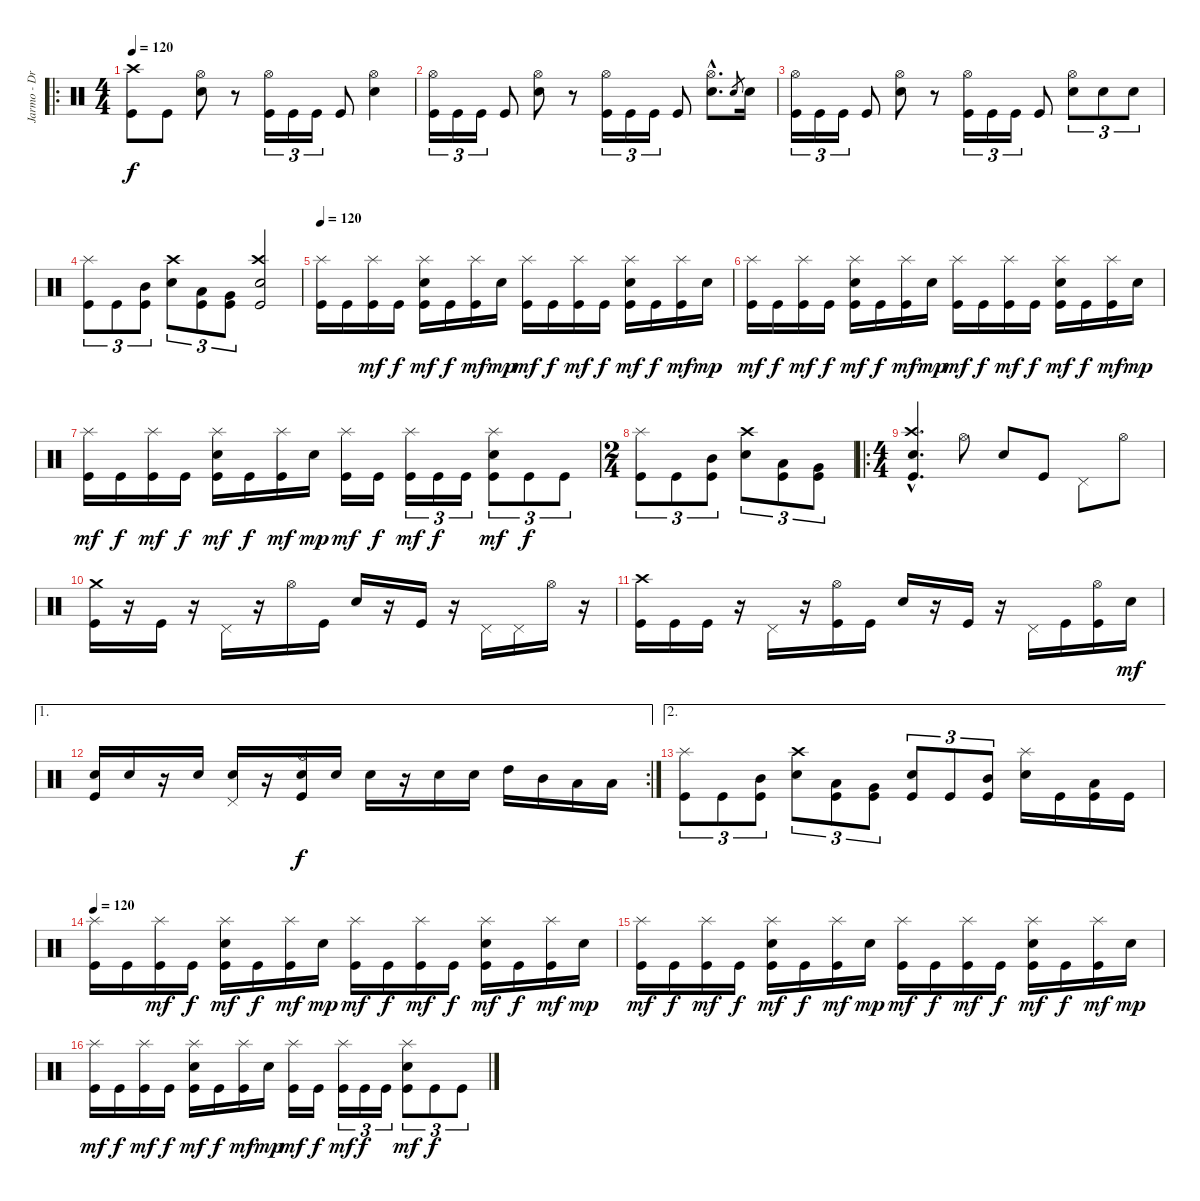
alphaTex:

\track ("Jarmo - Drums" "Jarmo - Dr") {instrument percussion}
\staff {score}
\articulation defaults
\ro
\ts (4 4)
\tempo 120
\clef neutral
\ks c
("Kick (hit)" "Crash high (hit)").8{dy f} "Kick (hit)".8 ("Electric Snare (hit)" "Hi-Hat (open)").8 r.8 ("Kick (hit)" "Hi-Hat (open)").16{tu (3 2)} "Kick (hit)".16{tu (3 2)} "Kick (hit)".16{tu (3 2)} "Kick (hit)".8 ("Electric Snare (hit)" "Hi-Hat (open)").4 |
("Kick (hit)" "Hi-Hat (open)").16{tu (3 2)} "Kick (hit)".16{tu (3 2)} "Kick (hit)".16{tu (3 2)} "Kick (hit)".8 ("Electric Snare (hit)" "Hi-Hat (open)").8 r.8 ("Kick (hit)" "Hi-Hat (open)").16{tu (3 2)} "Kick (hit)".16{tu (3 2)} "Kick (hit)".16{tu (3 2)} "Kick (hit)".8 ("Electric Snare (hit)"{hac} "Hi-Hat (open)"{hac}).8{d} "Snare (hit) 2".8{gr} "Electric Snare (hit)".16 |
("Kick (hit)" "Hi-Hat (open)").16{tu (3 2)} "Kick (hit)".16{tu (3 2)} "Kick (hit)".16{tu (3 2)} "Kick (hit)".8 ("Electric Snare (hit)" "Hi-Hat (open)").8 r.8 ("Kick (hit)" "Hi-Hat (open)").16{tu (3 2)} "Kick (hit)".16{tu (3 2)} "Kick (hit)".16{tu (3 2)} "Kick (hit)".8 ("Electric Snare (hit)" "Hi-Hat (open)").8{tu (3 2)} "Electric Snare (hit)".8{tu (3 2)} "Electric Snare (hit)".8{tu (3 2)} |
("Kick (hit)" "Splash (hit)").8{tu (3 2)} "Kick (hit)".8{tu (3 2)} ("Kick (hit)" "Mid Tom (hit)").8{tu (3 2)} ("Electric Snare (hit)" "Crash high (hit)").8{tu (3 2)} ("Kick (hit)" "Low Tom (hit)").8{tu (3 2)} ("Kick (hit)" "Very Low Tom (hit)").8{tu (3 2)} ("Kick (hit)" "Electric Snare (hit)" "Crash high (hit)").2 |
\tempo 120
("Kick (hit)" "Splash (hit)").16 "Kick (hit)".16 ("Kick (hit)" "Splash (hit)").16{dy mf} "Kick (hit)".16{dy f} ("Kick (hit)" "Electric Snare (hit)" "Splash (hit)").16{dy mf} "Kick (hit)".16{dy f} ("Kick (hit)" "Splash (hit)").16{dy mf} "Electric Snare (hit)".16{dy mp} ("Kick (hit)" "Splash (hit)").16{dy mf} "Kick (hit)".16{dy f} ("Kick (hit)" "Splash (hit)").16{dy mf} "Kick (hit)".16{dy f} ("Kick (hit)" "Electric Snare (hit)" "Splash (hit)").16{dy mf} "Kick (hit)".16{dy f} ("Kick (hit)" "Splash (hit)").16{dy mf} "Electric Snare (hit)".16{dy mp} |
("Kick (hit)" "Splash (hit)").16{dy mf} "Kick (hit)".16{dy f} ("Kick (hit)" "Splash (hit)").16{dy mf} "Kick (hit)".16{dy f} ("Kick (hit)" "Electric Snare (hit)" "Splash (hit)").16{dy mf} "Kick (hit)".16{dy f} ("Kick (hit)" "Splash (hit)").16{dy mf} "Electric Snare (hit)".16{dy mp} ("Kick (hit)" "Splash (hit)").16{dy mf} "Kick (hit)".16{dy f} ("Kick (hit)" "Splash (hit)").16{dy mf} "Kick (hit)".16{dy f} ("Kick (hit)" "Electric Snare (hit)" "Splash (hit)").16{dy mf} "Kick (hit)".16{dy f} ("Kick (hit)" "Splash (hit)").16{dy mf} "Electric Snare (hit)".16{dy mp} |
("Kick (hit)" "Splash (hit)").16{dy mf} "Kick (hit)".16{dy f} ("Kick (hit)" "Splash (hit)").16{dy mf} "Kick (hit)".16{dy f} ("Kick (hit)" "Electric Snare (hit)" "Splash (hit)").16{dy mf} "Kick (hit)".16{dy f} ("Kick (hit)" "Splash (hit)").16{dy mf} "Electric Snare (hit)".16{dy mp} ("Kick (hit)" "Splash (hit)").16{dy mf} "Kick (hit)".16{dy f} ("Kick (hit)" "Splash (hit)").16{tu (3 2) dy mf} "Kick (hit)".16{tu (3 2) dy f} "Kick (hit)".16{tu (3 2)} ("Kick (hit)" "Electric Snare (hit)" "Splash (hit)").8{tu (3 2) dy mf} "Kick (hit)".8{tu (3 2) dy f} "Kick (hit)".8{tu (3 2)} |
\ts (2 4)
("Kick (hit)" "Splash (hit)").8{tu (3 2)} "Kick (hit)".8{tu (3 2)} ("Kick (hit)" "Mid Tom (hit)").8{tu (3 2)} ("Electric Snare (hit)" "Crash high (hit)").8{tu (3 2)} ("Kick (hit)" "Low Tom (hit)").8{tu (3 2)} ("Kick (hit)" "Very Low Tom (hit)").8{tu (3 2)} |
\ro
\ts (4 4)
("Kick (hit)"{hac} "Electric Snare (hit)"{hac} "Crash high (hit)"{hac}).4{d} "Hi-Hat (open)".8 "Electric Snare (hit)".8 "Kick (hit)".8 "Pedal Hi-Hat (hit)".8 "Hi-Hat (open)".8 |
("Kick (hit)" "Crash medium (hit)").16 r.16 "Kick (hit)".16 r.16 "Pedal Hi-Hat (hit)".16 r.16 "Hi-Hat (open)".16 "Kick (hit)".16 "Electric Snare (hit)".16 r.16 "Kick (hit)".16 r.16 "Pedal Hi-Hat (hit)".16 "Pedal Hi-Hat (hit)".16 "Hi-Hat (open)".16 r.16 |
("Kick (hit)" "Crash high (hit)").16 "Kick (hit)".16 "Kick (hit)".16 r.16 "Pedal Hi-Hat (hit)".16 r.16 ("Kick (hit)" "Hi-Hat (open)").16 "Kick (hit)".16 "Electric Snare (hit)".16 r.16 "Kick (hit)".16 r.16 "Pedal Hi-Hat (hit)".16 "Kick (hit)".16 ("Kick (hit)" "Hi-Hat (open)").16 "Snare (hit) 2".16{dy mf} |
\ae 1
\rc 2
("Kick (hit)" "Snare (hit) 2").16 "Snare (hit) 2".16 r.16 "Snare (hit) 2".16 ("Snare (hit) 2" "Pedal Hi-Hat (hit)").16 r.16 ("Kick (hit)" "Snare (hit) 2" "Hi-Hat (open)").16{dy f} "Snare (hit) 2".16 "Electric Snare (hit)".16 r.16 "Electric Snare (hit)".16 "Electric Snare (hit)".16 "High Tom (hit)".16 "Mid Tom (hit)".16 "Low Tom (hit)".16 "Low Tom (hit)".16 |
\ae 2
("Kick (hit)" "Splash (hit)").8{tu (3 2)} "Kick (hit)".8{tu (3 2)} ("Kick (hit)" "Mid Tom (hit)").8{tu (3 2)} ("Electric Snare (hit)" "Crash high (hit)").8{tu (3 2)} ("Kick (hit)" "Low Tom (hit)").8{tu (3 2)} ("Kick (hit)" "Very Low Tom (hit)").8{tu (3 2)} ("Kick (hit)" "Electric Snare (hit)").8{tu (3 2)} "Kick (hit)".8{tu (3 2)} ("Kick (hit)" "Mid Tom (hit)").8{tu (3 2)} ("Electric Snare (hit)" "Splash (hit)").16 "Kick (hit)".16 ("Kick (hit)" "Low Tom (hit)").16 "Kick (hit)".16 |
\tempo 120
("Kick (hit)" "Splash (hit)").16 "Kick (hit)".16 ("Kick (hit)" "Splash (hit)").16{dy mf} "Kick (hit)".16{dy f} ("Kick (hit)" "Electric Snare (hit)" "Splash (hit)").16{dy mf} "Kick (hit)".16{dy f} ("Kick (hit)" "Splash (hit)").16{dy mf} "Electric Snare (hit)".16{dy mp} ("Kick (hit)" "Splash (hit)").16{dy mf} "Kick (hit)".16{dy f} ("Kick (hit)" "Splash (hit)").16{dy mf} "Kick (hit)".16{dy f} ("Kick (hit)" "Electric Snare (hit)" "Splash (hit)").16{dy mf} "Kick (hit)".16{dy f} ("Kick (hit)" "Splash (hit)").16{dy mf} "Electric Snare (hit)".16{dy mp} |
("Kick (hit)" "Splash (hit)").16{dy mf} "Kick (hit)".16{dy f} ("Kick (hit)" "Splash (hit)").16{dy mf} "Kick (hit)".16{dy f} ("Kick (hit)" "Electric Snare (hit)" "Splash (hit)").16{dy mf} "Kick (hit)".16{dy f} ("Kick (hit)" "Splash (hit)").16{dy mf} "Electric Snare (hit)".16{dy mp} ("Kick (hit)" "Splash (hit)").16{dy mf} "Kick (hit)".16{dy f} ("Kick (hit)" "Splash (hit)").16{dy mf} "Kick (hit)".16{dy f} ("Kick (hit)" "Electric Snare (hit)" "Splash (hit)").16{dy mf} "Kick (hit)".16{dy f} ("Kick (hit)" "Splash (hit)").16{dy mf} "Electric Snare (hit)".16{dy mp} |
("Kick (hit)" "Splash (hit)").16{dy mf} "Kick (hit)".16{dy f} ("Kick (hit)" "Splash (hit)").16{dy mf} "Kick (hit)".16{dy f} ("Kick (hit)" "Electric Snare (hit)" "Splash (hit)").16{dy mf} "Kick (hit)".16{dy f} ("Kick (hit)" "Splash (hit)").16{dy mf} "Electric Snare (hit)".16{dy mp} ("Kick (hit)" "Splash (hit)").16{dy mf} "Kick (hit)".16{dy f} ("Kick (hit)" "Splash (hit)").16{tu (3 2) dy mf} "Kick (hit)".16{tu (3 2) dy f} "Kick (hit)".16{tu (3 2)} ("Kick (hit)" "Electric Snare (hit)" "Splash (hit)").8{tu (3 2) dy mf} "Kick (hit)".8{tu (3 2) dy f} "Kick (hit)".8{tu (3 2)}
